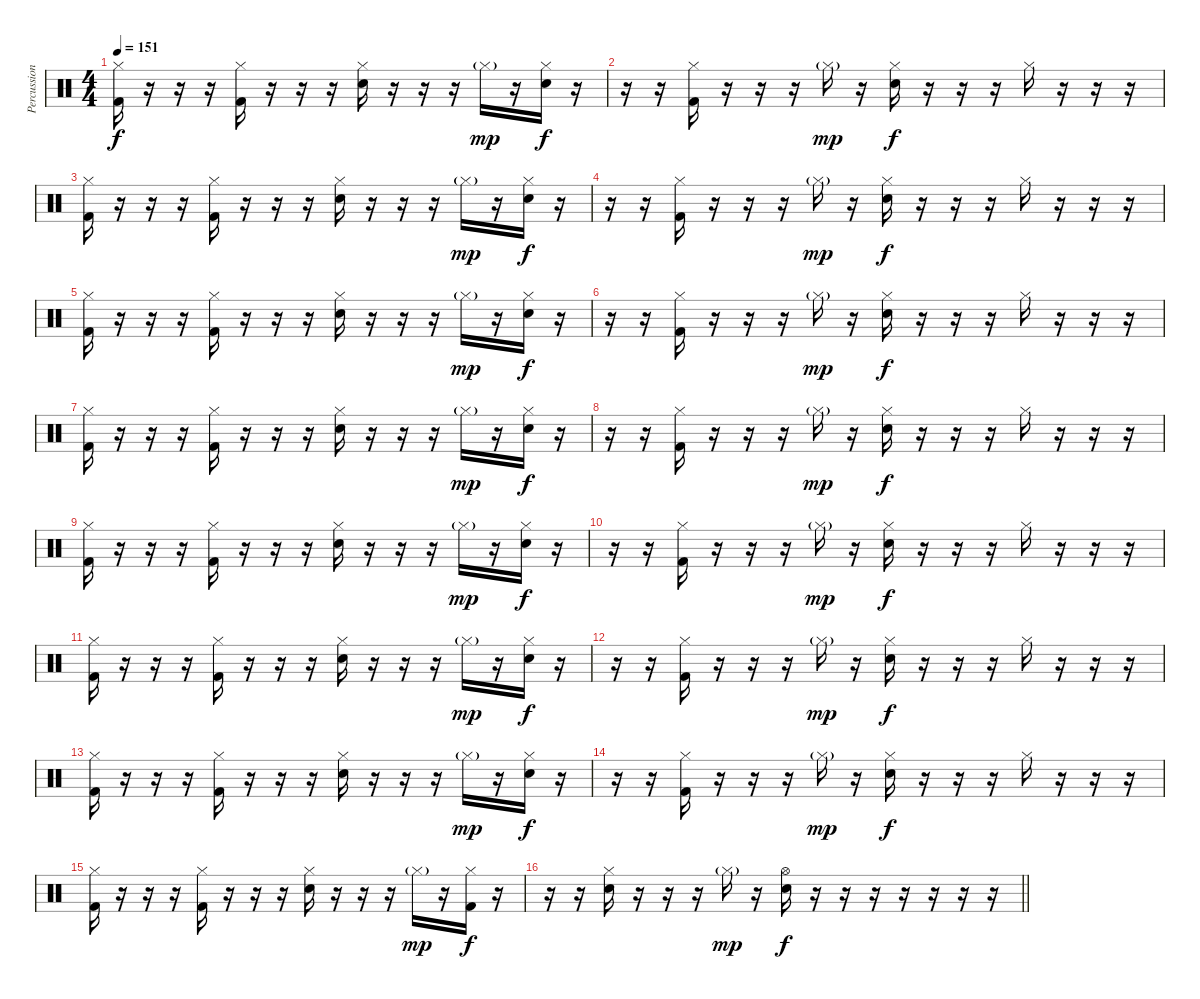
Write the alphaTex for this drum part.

\track ("Percussion" "Percussion") {instrument percussion}
\staff {score}
\articulation defaults
\ts (4 4)
\tempo 151
\clef neutral
\ks c
("Hi-Hat (closed)" "Kick (hit) 2").16{dy f} r.16 r.16 r.16 ("Hi-Hat (closed)" "Kick (hit) 2").16 r.16 r.16 r.16 ("Hi-Hat (closed)" "Electric Snare (hit)").16 r.16 r.16 r.16 "Hi-Hat (closed)"{g}.16{dy mp} r.16 ("Hi-Hat (closed)" "Electric Snare (hit)").16{dy f} r.16 |
r.16 r.16 ("Hi-Hat (closed)" "Kick (hit) 2").16 r.16 r.16 r.16 "Hi-Hat (closed)"{g}.16{dy mp} r.16 ("Hi-Hat (closed)" "Electric Snare (hit)").16{dy f} r.16 r.16 r.16 "Hi-Hat (closed)".16 r.16 r.16 r.16 |
("Hi-Hat (closed)" "Kick (hit) 2").16 r.16 r.16 r.16 ("Hi-Hat (closed)" "Kick (hit) 2").16 r.16 r.16 r.16 ("Hi-Hat (closed)" "Electric Snare (hit)").16 r.16 r.16 r.16 "Hi-Hat (closed)"{g}.16{dy mp} r.16 ("Hi-Hat (closed)" "Electric Snare (hit)").16{dy f} r.16 |
r.16 r.16 ("Hi-Hat (closed)" "Kick (hit) 2").16 r.16 r.16 r.16 "Hi-Hat (closed)"{g}.16{dy mp} r.16 ("Hi-Hat (closed)" "Electric Snare (hit)").16{dy f} r.16 r.16 r.16 "Hi-Hat (closed)".16 r.16 r.16 r.16 |
("Hi-Hat (closed)" "Kick (hit) 2").16 r.16 r.16 r.16 ("Hi-Hat (closed)" "Kick (hit) 2").16 r.16 r.16 r.16 ("Hi-Hat (closed)" "Electric Snare (hit)").16 r.16 r.16 r.16 "Hi-Hat (closed)"{g}.16{dy mp} r.16 ("Hi-Hat (closed)" "Electric Snare (hit)").16{dy f} r.16 |
r.16 r.16 ("Hi-Hat (closed)" "Kick (hit) 2").16 r.16 r.16 r.16 "Hi-Hat (closed)"{g}.16{dy mp} r.16 ("Hi-Hat (closed)" "Electric Snare (hit)").16{dy f} r.16 r.16 r.16 "Hi-Hat (closed)".16 r.16 r.16 r.16 |
("Hi-Hat (closed)" "Kick (hit) 2").16 r.16 r.16 r.16 ("Hi-Hat (closed)" "Kick (hit) 2").16 r.16 r.16 r.16 ("Hi-Hat (closed)" "Electric Snare (hit)").16 r.16 r.16 r.16 "Hi-Hat (closed)"{g}.16{dy mp} r.16 ("Hi-Hat (closed)" "Electric Snare (hit)").16{dy f} r.16 |
r.16 r.16 ("Hi-Hat (closed)" "Kick (hit) 2").16 r.16 r.16 r.16 "Hi-Hat (closed)"{g}.16{dy mp} r.16 ("Hi-Hat (closed)" "Electric Snare (hit)").16{dy f} r.16 r.16 r.16 "Hi-Hat (closed)".16 r.16 r.16 r.16 |
("Hi-Hat (closed)" "Kick (hit) 2").16 r.16 r.16 r.16 ("Hi-Hat (closed)" "Kick (hit) 2").16 r.16 r.16 r.16 ("Hi-Hat (closed)" "Electric Snare (hit)").16 r.16 r.16 r.16 "Hi-Hat (closed)"{g}.16{dy mp} r.16 ("Hi-Hat (closed)" "Electric Snare (hit)").16{dy f} r.16 |
r.16 r.16 ("Hi-Hat (closed)" "Kick (hit) 2").16 r.16 r.16 r.16 "Hi-Hat (closed)"{g}.16{dy mp} r.16 ("Hi-Hat (closed)" "Electric Snare (hit)").16{dy f} r.16 r.16 r.16 "Hi-Hat (closed)".16 r.16 r.16 r.16 |
("Hi-Hat (closed)" "Kick (hit) 2").16 r.16 r.16 r.16 ("Hi-Hat (closed)" "Kick (hit) 2").16 r.16 r.16 r.16 ("Hi-Hat (closed)" "Electric Snare (hit)").16 r.16 r.16 r.16 "Hi-Hat (closed)"{g}.16{dy mp} r.16 ("Hi-Hat (closed)" "Electric Snare (hit)").16{dy f} r.16 |
r.16 r.16 ("Hi-Hat (closed)" "Kick (hit) 2").16 r.16 r.16 r.16 "Hi-Hat (closed)"{g}.16{dy mp} r.16 ("Hi-Hat (closed)" "Electric Snare (hit)").16{dy f} r.16 r.16 r.16 "Hi-Hat (closed)".16 r.16 r.16 r.16 |
("Hi-Hat (closed)" "Kick (hit) 2").16 r.16 r.16 r.16 ("Hi-Hat (closed)" "Kick (hit) 2").16 r.16 r.16 r.16 ("Hi-Hat (closed)" "Electric Snare (hit)").16 r.16 r.16 r.16 "Hi-Hat (closed)"{g}.16{dy mp} r.16 ("Hi-Hat (closed)" "Electric Snare (hit)").16{dy f} r.16 |
r.16 r.16 ("Hi-Hat (closed)" "Kick (hit) 2").16 r.16 r.16 r.16 "Hi-Hat (closed)"{g}.16{dy mp} r.16 ("Hi-Hat (closed)" "Electric Snare (hit)").16{dy f} r.16 r.16 r.16 "Hi-Hat (closed)".16 r.16 r.16 r.16 |
("Hi-Hat (closed)" "Kick (hit) 2").16 r.16 r.16 r.16 ("Hi-Hat (closed)" "Kick (hit) 2").16 r.16 r.16 r.16 ("Hi-Hat (closed)" "Electric Snare (hit)").16 r.16 r.16 r.16 "Hi-Hat (closed)"{g}.16{dy mp} r.16 ("Hi-Hat (closed)" "Kick (hit) 2").16{dy f} r.16 |
\barLineRight lightlight
r.16 r.16 ("Hi-Hat (closed)" "Electric Snare (hit)").16 r.16 r.16 r.16 "Hi-Hat (closed)"{g}.16{dy mp} r.16 ("Hi-Hat (open)" "Electric Snare (hit)").16{dy f} r.16 r.16 r.16 r.16 r.16 r.16 r.16
